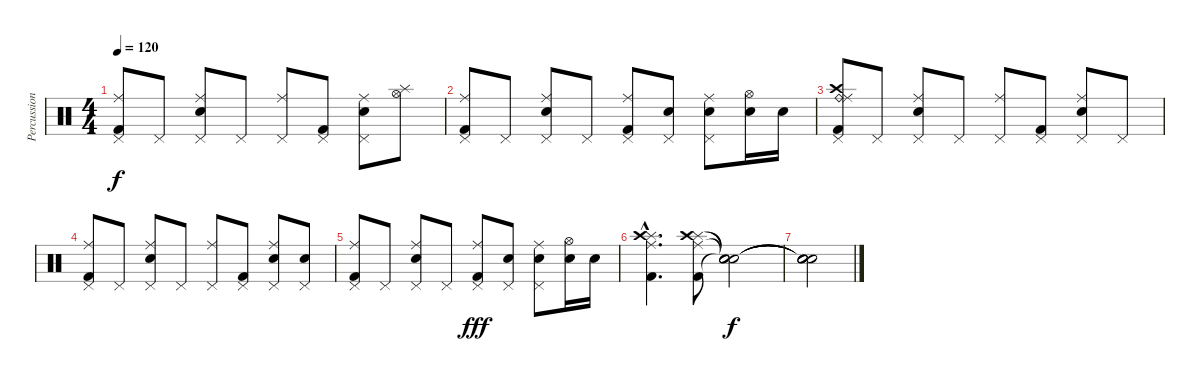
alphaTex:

\track ("Percussion" "Percussion") {instrument percussion}
\staff {score}
\articulation defaults
\ts (4 4)
\tempo 120
\clef neutral
\ks c
("Pedal Hi-Hat (hit)" "Kick (hit) 2" "Ride (middle)").8{dy f} "Pedal Hi-Hat (hit)".8 ("Pedal Hi-Hat (hit)" "Electric Snare (hit)" "Ride (middle)").8 "Pedal Hi-Hat (hit)".8 ("Pedal Hi-Hat (hit)" "Ride (middle)").8 ("Pedal Hi-Hat (hit)" "Kick (hit) 2").8 ("Pedal Hi-Hat (hit)" "Electric Snare (hit)" "Ride (middle)").8 ("Hi-Hat (open)" "Splash (hit)").8 |
("Pedal Hi-Hat (hit)" "Kick (hit) 2" "Ride (middle)").8 "Pedal Hi-Hat (hit)".8 ("Pedal Hi-Hat (hit)" "Electric Snare (hit)" "Ride (middle)").8 "Pedal Hi-Hat (hit)".8 ("Pedal Hi-Hat (hit)" "Kick (hit) 2" "Ride (middle)").8 ("Pedal Hi-Hat (hit)" "Electric Snare (hit)").8 ("Pedal Hi-Hat (hit)" "Electric Snare (hit)" "Ride (middle)").8 ("Hi-Hat (open)" "Electric Snare (hit)").16 "Electric Snare (hit)".16 |
("Pedal Hi-Hat (hit)" "Kick (hit) 2" "Crash high (hit)" "Ride (bell)" "Ride (middle)").8 "Pedal Hi-Hat (hit)".8 ("Pedal Hi-Hat (hit)" "Electric Snare (hit)" "Ride (middle)").8 "Pedal Hi-Hat (hit)".8 ("Pedal Hi-Hat (hit)" "Ride (middle)").8 ("Pedal Hi-Hat (hit)" "Kick (hit) 2").8 ("Pedal Hi-Hat (hit)" "Electric Snare (hit)" "Ride (middle)").8 "Pedal Hi-Hat (hit)".8 |
("Pedal Hi-Hat (hit)" "Kick (hit) 2" "Ride (middle)").8 "Pedal Hi-Hat (hit)".8 ("Pedal Hi-Hat (hit)" "Electric Snare (hit)" "Ride (middle)").8 "Pedal Hi-Hat (hit)".8 ("Pedal Hi-Hat (hit)" "Ride (middle)").8 ("Pedal Hi-Hat (hit)" "Kick (hit) 2").8 ("Pedal Hi-Hat (hit)" "Electric Snare (hit)" "Ride (middle)").8 ("Pedal Hi-Hat (hit)" "Electric Snare (hit)").8 |
("Pedal Hi-Hat (hit)" "Kick (hit) 2" "Ride (middle)").8 "Pedal Hi-Hat (hit)".8 ("Pedal Hi-Hat (hit)" "Electric Snare (hit)" "Ride (middle)").8 "Pedal Hi-Hat (hit)".8 ("Pedal Hi-Hat (hit)" "Kick (hit) 2" "Ride (middle)").8{dy fff} ("Pedal Hi-Hat (hit)" "Electric Snare (hit)").8 ("Pedal Hi-Hat (hit)" "Electric Snare (hit)" "Ride (middle)").8 ("Hi-Hat (open)" "Electric Snare (hit)").16 "Electric Snare (hit)".16 |
("Kick (hit) 2"{hac} "Splash (hit)"{hac} "Crash high (hit)"{hac} "Ride (middle)"{hac}).4{d} ("Kick (hit) 2" "Splash (hit)" "Crash high (hit)" "Ride (middle)").8 ("Snare (hit)"{t} "Snare (hit)"{t} "Snare (hit)"{t} "Snare (hit)"{t}).2{dy f} |
("Snare (hit)"{t} "Snare (hit)"{t} "Snare (hit)"{t} "Snare (hit)"{t}).2
